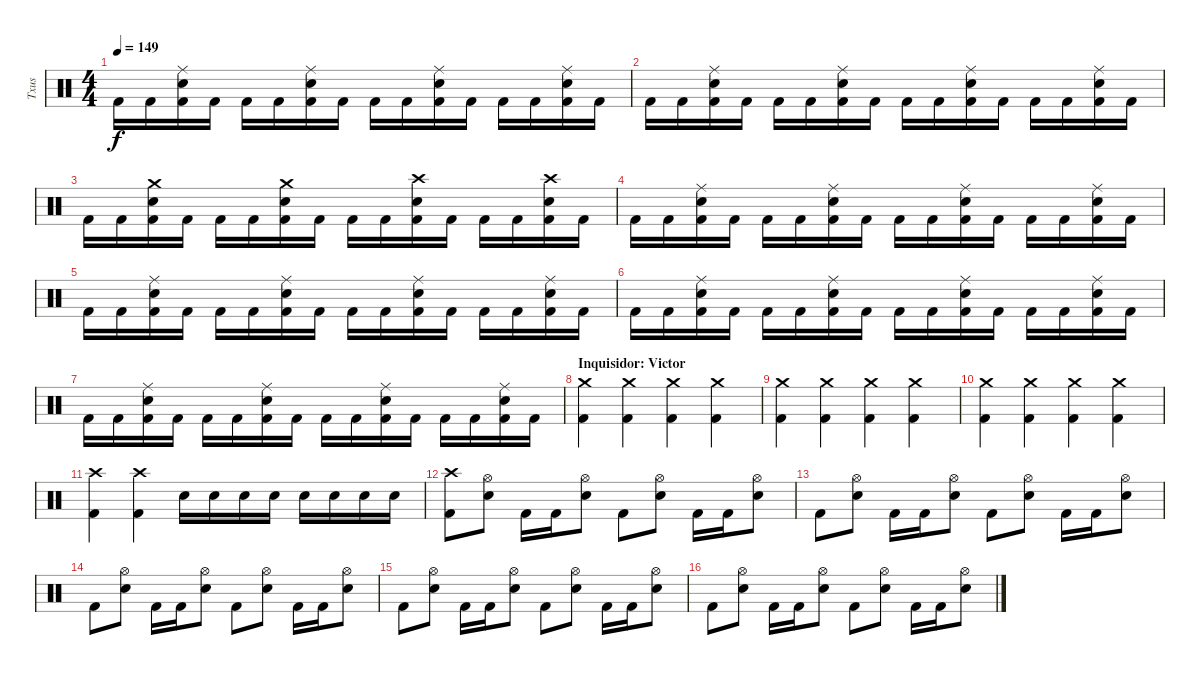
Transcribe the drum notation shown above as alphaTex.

\track ("Txus" "Txus") {instrument percussion}
\staff {score}
\articulation defaults
\ts (4 4)
\tempo 149
\clef neutral
\ks c "Kick (hit) 2".16{dy f} "Kick (hit) 2".16
("Kick (hit) 2" "Electric Snare (hit)" "Ride (middle)").16 "Kick (hit) 2".16 "Kick (hit) 2".16 "Kick (hit) 2".16 ("Kick (hit) 2" "Electric Snare (hit)" "Ride (middle)").16 "Kick (hit) 2".16 "Kick (hit) 2".16 "Kick (hit) 2".16 ("Kick (hit) 2" "Electric Snare (hit)" "Ride (middle)").16 "Kick (hit) 2".16 "Kick (hit) 2".16 "Kick (hit) 2".16 ("Kick (hit) 2" "Electric Snare (hit)" "Ride (middle)").16 "Kick (hit) 2".16 |
"Kick (hit) 2".16 "Kick (hit) 2".16 ("Kick (hit) 2" "Electric Snare (hit)" "Ride (middle)").16 "Kick (hit) 2".16 "Kick (hit) 2".16 "Kick (hit) 2".16 ("Kick (hit) 2" "Electric Snare (hit)" "Ride (middle)").16 "Kick (hit) 2".16 "Kick (hit) 2".16 "Kick (hit) 2".16 ("Kick (hit) 2" "Electric Snare (hit)" "Ride (middle)").16 "Kick (hit) 2".16 "Kick (hit) 2".16 "Kick (hit) 2".16 ("Kick (hit) 2" "Electric Snare (hit)" "Ride (middle)").16 "Kick (hit) 2".16 |
"Kick (hit) 2".16 "Kick (hit) 2".16 ("Kick (hit) 2" "Electric Snare (hit)" "Crash medium (hit)").16 "Kick (hit) 2".16 "Kick (hit) 2".16 "Kick (hit) 2".16 ("Kick (hit) 2" "Electric Snare (hit)" "Crash medium (hit)").16 "Kick (hit) 2".16 "Kick (hit) 2".16 "Kick (hit) 2".16 ("Kick (hit) 2" "Electric Snare (hit)" "Crash high (hit)").16 "Kick (hit) 2".16 "Kick (hit) 2".16 "Kick (hit) 2".16 ("Kick (hit) 2" "Electric Snare (hit)" "Crash high (hit)").16 "Kick (hit) 2".16 |
"Kick (hit) 2".16 "Kick (hit) 2".16 ("Kick (hit) 2" "Electric Snare (hit)" "Ride (middle)").16 "Kick (hit) 2".16 "Kick (hit) 2".16 "Kick (hit) 2".16 ("Kick (hit) 2" "Electric Snare (hit)" "Ride (middle)").16 "Kick (hit) 2".16 "Kick (hit) 2".16 "Kick (hit) 2".16 ("Kick (hit) 2" "Electric Snare (hit)" "Ride (middle)").16 "Kick (hit) 2".16 "Kick (hit) 2".16 "Kick (hit) 2".16 ("Kick (hit) 2" "Electric Snare (hit)" "Ride (middle)").16 "Kick (hit) 2".16 |
"Kick (hit) 2".16 "Kick (hit) 2".16 ("Kick (hit) 2" "Electric Snare (hit)" "Ride (middle)").16 "Kick (hit) 2".16 "Kick (hit) 2".16 "Kick (hit) 2".16 ("Kick (hit) 2" "Electric Snare (hit)" "Ride (middle)").16 "Kick (hit) 2".16 "Kick (hit) 2".16 "Kick (hit) 2".16 ("Kick (hit) 2" "Electric Snare (hit)" "Ride (middle)").16 "Kick (hit) 2".16 "Kick (hit) 2".16 "Kick (hit) 2".16 ("Kick (hit) 2" "Electric Snare (hit)" "Ride (middle)").16 "Kick (hit) 2".16 |
"Kick (hit) 2".16 "Kick (hit) 2".16 ("Kick (hit) 2" "Electric Snare (hit)" "Ride (middle)").16 "Kick (hit) 2".16 "Kick (hit) 2".16 "Kick (hit) 2".16 ("Kick (hit) 2" "Electric Snare (hit)" "Ride (middle)").16 "Kick (hit) 2".16 "Kick (hit) 2".16 "Kick (hit) 2".16 ("Kick (hit) 2" "Electric Snare (hit)" "Ride (middle)").16 "Kick (hit) 2".16 "Kick (hit) 2".16 "Kick (hit) 2".16 ("Kick (hit) 2" "Electric Snare (hit)" "Ride (middle)").16 "Kick (hit) 2".16 |
"Kick (hit) 2".16 "Kick (hit) 2".16 ("Kick (hit) 2" "Electric Snare (hit)" "Ride (middle)").16 "Kick (hit) 2".16 "Kick (hit) 2".16 "Kick (hit) 2".16 ("Kick (hit) 2" "Electric Snare (hit)" "Ride (middle)").16 "Kick (hit) 2".16 "Kick (hit) 2".16 "Kick (hit) 2".16 ("Kick (hit) 2" "Electric Snare (hit)" "Ride (middle)").16 "Kick (hit) 2".16 "Kick (hit) 2".16 "Kick (hit) 2".16 ("Kick (hit) 2" "Electric Snare (hit)" "Ride (middle)").16 "Kick (hit) 2".16 |
\section ("" "Inquisidor: Victor")
("Kick (hit) 2" "Crash medium (hit)").4 ("Kick (hit) 2" "Crash medium (hit)").4 ("Kick (hit) 2" "Crash medium (hit)").4 ("Kick (hit) 2" "Crash medium (hit)").4 |
("Kick (hit) 2" "Crash medium (hit)").4 ("Kick (hit) 2" "Crash medium (hit)").4 ("Kick (hit) 2" "Crash medium (hit)").4 ("Kick (hit) 2" "Crash medium (hit)").4 |
("Kick (hit) 2" "Crash medium (hit)").4 ("Kick (hit) 2" "Crash medium (hit)").4 ("Kick (hit) 2" "Crash medium (hit)").4 ("Kick (hit) 2" "Crash medium (hit)").4 |
("Kick (hit) 2" "Crash high (hit)").4 ("Kick (hit) 2" "Crash high (hit)").4 "Electric Snare (hit)".16 "Electric Snare (hit)".16 "Electric Snare (hit)".16 "Electric Snare (hit)".16 "Electric Snare (hit)".16 "Electric Snare (hit)".16 "Electric Snare (hit)".16 "Electric Snare (hit)".16 |
("Kick (hit) 2" "Crash high (hit)").8 ("Electric Snare (hit)" "Hi-Hat (open)").8 "Kick (hit) 2".16 "Kick (hit) 2".16 ("Electric Snare (hit)" "Hi-Hat (open)").8 "Kick (hit) 2".8 ("Electric Snare (hit)" "Hi-Hat (open)").8 "Kick (hit) 2".16 "Kick (hit) 2".16 ("Electric Snare (hit)" "Hi-Hat (open)").8 |
"Kick (hit) 2".8 ("Electric Snare (hit)" "Hi-Hat (open)").8 "Kick (hit) 2".16 "Kick (hit) 2".16 ("Electric Snare (hit)" "Hi-Hat (open)").8 "Kick (hit) 2".8 ("Electric Snare (hit)" "Hi-Hat (open)").8 "Kick (hit) 2".16 "Kick (hit) 2".16 ("Electric Snare (hit)" "Hi-Hat (open)").8 |
"Kick (hit) 2".8 ("Electric Snare (hit)" "Hi-Hat (open)").8 "Kick (hit) 2".16 "Kick (hit) 2".16 ("Electric Snare (hit)" "Hi-Hat (open)").8 "Kick (hit) 2".8 ("Electric Snare (hit)" "Hi-Hat (open)").8 "Kick (hit) 2".16 "Kick (hit) 2".16 ("Electric Snare (hit)" "Hi-Hat (open)").8 |
"Kick (hit) 2".8 ("Electric Snare (hit)" "Hi-Hat (open)").8 "Kick (hit) 2".16 "Kick (hit) 2".16 ("Electric Snare (hit)" "Hi-Hat (open)").8 "Kick (hit) 2".8 ("Electric Snare (hit)" "Hi-Hat (open)").8 "Kick (hit) 2".16 "Kick (hit) 2".16 ("Electric Snare (hit)" "Hi-Hat (open)").8 |
"Kick (hit) 2".8 ("Electric Snare (hit)" "Hi-Hat (open)").8 "Kick (hit) 2".16 "Kick (hit) 2".16 ("Electric Snare (hit)" "Hi-Hat (open)").8 "Kick (hit) 2".8 ("Electric Snare (hit)" "Hi-Hat (open)").8 "Kick (hit) 2".16 "Kick (hit) 2".16 ("Electric Snare (hit)" "Hi-Hat (open)").8
